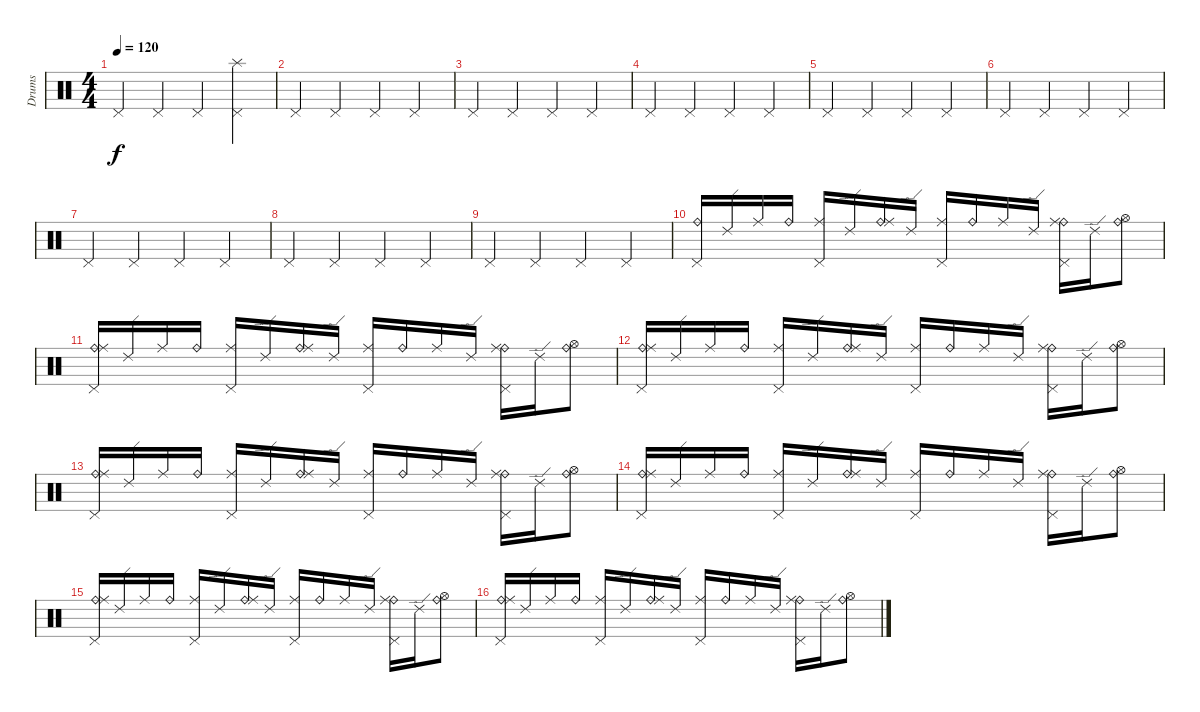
\track ("Drums" "Drums") {instrument percussion}
\staff {score}
\articulation defaults
\ts (4 4)
\tempo 120
\clef neutral
\ks c "Pedal Hi-Hat (hit)".4{dy f} "Pedal Hi-Hat (hit)".4 "Pedal Hi-Hat (hit)".4
("Pedal Hi-Hat (hit)" "Splash (hit)").4 |
"Pedal Hi-Hat (hit)".4 "Pedal Hi-Hat (hit)".4 "Pedal Hi-Hat (hit)".4 "Pedal Hi-Hat (hit)".4 |
"Pedal Hi-Hat (hit)".4 "Pedal Hi-Hat (hit)".4 "Pedal Hi-Hat (hit)".4 "Pedal Hi-Hat (hit)".4 |
"Pedal Hi-Hat (hit)".4 "Pedal Hi-Hat (hit)".4 "Pedal Hi-Hat (hit)".4 "Pedal Hi-Hat (hit)".4 |
"Pedal Hi-Hat (hit)".4 "Pedal Hi-Hat (hit)".4 "Pedal Hi-Hat (hit)".4 "Pedal Hi-Hat (hit)".4 |
"Pedal Hi-Hat (hit)".4 "Pedal Hi-Hat (hit)".4 "Pedal Hi-Hat (hit)".4 "Pedal Hi-Hat (hit)".4 |
"Pedal Hi-Hat (hit)".4 "Pedal Hi-Hat (hit)".4 "Pedal Hi-Hat (hit)".4 "Pedal Hi-Hat (hit)".4 |
"Pedal Hi-Hat (hit)".4 "Pedal Hi-Hat (hit)".4 "Pedal Hi-Hat (hit)".4 "Pedal Hi-Hat (hit)".4 |
"Pedal Hi-Hat (hit)".4 "Pedal Hi-Hat (hit)".4 "Pedal Hi-Hat (hit)".4 "Pedal Hi-Hat (hit)".4 |
("Ride (bell)" "Pedal Hi-Hat (hit)").16 "Ride (edge) 2".16 "Ride (middle)".16 "Ride (bell)".16 ("Ride (middle)" "Pedal Hi-Hat (hit)").16 "Ride (edge) 2".16 ("Ride (bell)" "Ride (middle)").16 "Ride (edge) 2".16 ("Ride (middle)" "Pedal Hi-Hat (hit)").16 "Ride (bell)".16 "Ride (middle)".16 "Ride (edge) 2".16 ("Ride (bell)" "Ride (middle)" "Pedal Hi-Hat (hit)").16 "Ride (edge) 2".16 ("Ride (bell)" "Hi-Hat (open)").8 |
("Pedal Hi-Hat (hit)" "Ride (bell)" "Ride (middle)").16 "Ride (edge) 2".16 "Ride (middle)".16 "Ride (bell)".16 ("Pedal Hi-Hat (hit)" "Ride (middle)").16 "Ride (edge) 2".16 ("Ride (bell)" "Ride (middle)").16 "Ride (edge) 2".16 ("Pedal Hi-Hat (hit)" "Ride (middle)").16 "Ride (bell)".16 "Ride (middle)".16 "Ride (edge) 2".16 ("Pedal Hi-Hat (hit)" "Ride (bell)" "Ride (middle)").16 "Ride (edge) 2".16 ("Ride (bell)" "Hi-Hat (open)").8 |
("Pedal Hi-Hat (hit)" "Ride (bell)" "Ride (middle)").16 "Ride (edge) 2".16 "Ride (middle)".16 "Ride (bell)".16 ("Pedal Hi-Hat (hit)" "Ride (middle)").16 "Ride (edge) 2".16 ("Ride (bell)" "Ride (middle)").16 "Ride (edge) 2".16 ("Pedal Hi-Hat (hit)" "Ride (middle)").16 "Ride (bell)".16 "Ride (middle)".16 "Ride (edge) 2".16 ("Pedal Hi-Hat (hit)" "Ride (bell)" "Ride (middle)").16 "Ride (edge) 2".16 ("Ride (bell)" "Hi-Hat (open)").8 |
("Pedal Hi-Hat (hit)" "Ride (bell)" "Ride (middle)").16 "Ride (edge) 2".16 "Ride (middle)".16 "Ride (bell)".16 ("Pedal Hi-Hat (hit)" "Ride (middle)").16 "Ride (edge) 2".16 ("Ride (bell)" "Ride (middle)").16 "Ride (edge) 2".16 ("Pedal Hi-Hat (hit)" "Ride (middle)").16 "Ride (bell)".16 "Ride (middle)".16 "Ride (edge) 2".16 ("Pedal Hi-Hat (hit)" "Ride (bell)" "Ride (middle)").16 "Ride (edge) 2".16 ("Ride (bell)" "Hi-Hat (open)").8 |
("Pedal Hi-Hat (hit)" "Ride (bell)" "Ride (middle)").16 "Ride (edge) 2".16 "Ride (middle)".16 "Ride (bell)".16 ("Pedal Hi-Hat (hit)" "Ride (middle)").16 "Ride (edge) 2".16 ("Ride (bell)" "Ride (middle)").16 "Ride (edge) 2".16 ("Pedal Hi-Hat (hit)" "Ride (middle)").16 "Ride (bell)".16 "Ride (middle)".16 "Ride (edge) 2".16 ("Pedal Hi-Hat (hit)" "Ride (bell)" "Ride (middle)").16 "Ride (edge) 2".16 ("Ride (bell)" "Hi-Hat (open)").8 |
("Pedal Hi-Hat (hit)" "Ride (bell)" "Ride (middle)").16 "Ride (edge) 2".16 "Ride (middle)".16 "Ride (bell)".16 ("Pedal Hi-Hat (hit)" "Ride (middle)").16 "Ride (edge) 2".16 ("Ride (bell)" "Ride (middle)").16 "Ride (edge) 2".16 ("Pedal Hi-Hat (hit)" "Ride (middle)").16 "Ride (bell)".16 "Ride (middle)".16 "Ride (edge) 2".16 ("Pedal Hi-Hat (hit)" "Ride (bell)" "Ride (middle)").16 "Ride (edge) 2".16 ("Ride (bell)" "Hi-Hat (open)").8 |
("Pedal Hi-Hat (hit)" "Ride (bell)" "Ride (middle)").16 "Ride (edge) 2".16 "Ride (middle)".16 "Ride (bell)".16 ("Pedal Hi-Hat (hit)" "Ride (middle)").16 "Ride (edge) 2".16 ("Ride (bell)" "Ride (middle)").16 "Ride (edge) 2".16 ("Pedal Hi-Hat (hit)" "Ride (middle)").16 "Ride (bell)".16 "Ride (middle)".16 "Ride (edge) 2".16 ("Pedal Hi-Hat (hit)" "Ride (bell)" "Ride (middle)").16 "Ride (edge) 2".16 ("Ride (bell)" "Hi-Hat (open)").8
